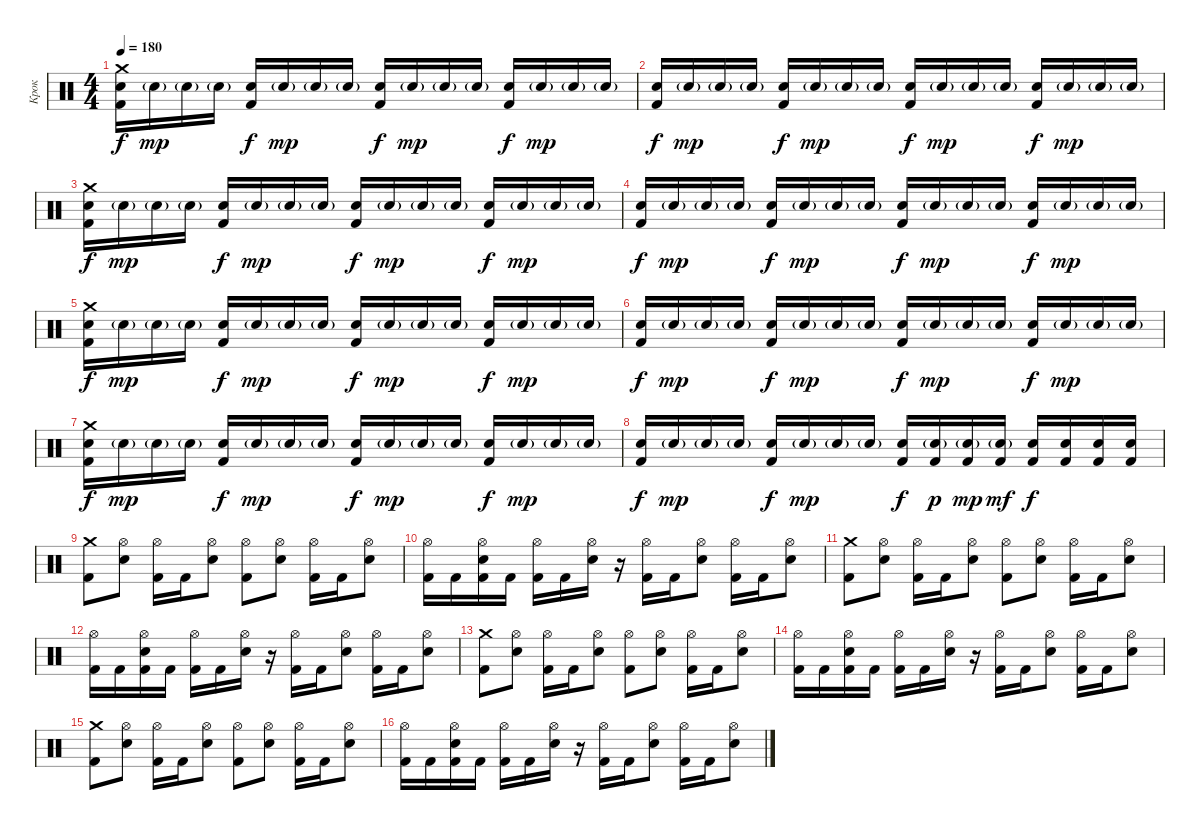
\track ("Крок" "Крок") {instrument percussion}
\staff {score}
\articulation defaults
\ts (4 4)
\tempo 180
\clef neutral
\ks c
("Crash medium (hit)" "Electric Snare (hit)" "Kick (hit) 2").16{dy f} "Electric Snare (hit)"{g}.16{dy mp} "Electric Snare (hit)"{g}.16 "Electric Snare (hit)"{g}.16 ("Electric Snare (hit)" "Kick (hit) 2").16{dy f} "Electric Snare (hit)"{g}.16{dy mp} "Electric Snare (hit)"{g}.16 "Electric Snare (hit)"{g}.16 ("Electric Snare (hit)" "Kick (hit) 2").16{dy f} "Electric Snare (hit)"{g}.16{dy mp} "Electric Snare (hit)"{g}.16 "Electric Snare (hit)"{g}.16 ("Electric Snare (hit)" "Kick (hit) 2").16{dy f} "Electric Snare (hit)"{g}.16{dy mp} "Electric Snare (hit)"{g}.16 "Electric Snare (hit)"{g}.16 |
("Electric Snare (hit)" "Kick (hit) 2").16{dy f} "Electric Snare (hit)"{g}.16{dy mp} "Electric Snare (hit)"{g}.16 "Electric Snare (hit)"{g}.16 ("Electric Snare (hit)" "Kick (hit) 2").16{dy f} "Electric Snare (hit)"{g}.16{dy mp} "Electric Snare (hit)"{g}.16 "Electric Snare (hit)"{g}.16 ("Electric Snare (hit)" "Kick (hit) 2").16{dy f} "Electric Snare (hit)"{g}.16{dy mp} "Electric Snare (hit)"{g}.16 "Electric Snare (hit)"{g}.16 ("Electric Snare (hit)" "Kick (hit) 2").16{dy f} "Electric Snare (hit)"{g}.16{dy mp} "Electric Snare (hit)"{g}.16 "Electric Snare (hit)"{g}.16 |
("Crash medium (hit)" "Electric Snare (hit)" "Kick (hit) 2").16{dy f} "Electric Snare (hit)"{g}.16{dy mp} "Electric Snare (hit)"{g}.16 "Electric Snare (hit)"{g}.16 ("Electric Snare (hit)" "Kick (hit) 2").16{dy f} "Electric Snare (hit)"{g}.16{dy mp} "Electric Snare (hit)"{g}.16 "Electric Snare (hit)"{g}.16 ("Electric Snare (hit)" "Kick (hit) 2").16{dy f} "Electric Snare (hit)"{g}.16{dy mp} "Electric Snare (hit)"{g}.16 "Electric Snare (hit)"{g}.16 ("Electric Snare (hit)" "Kick (hit) 2").16{dy f} "Electric Snare (hit)"{g}.16{dy mp} "Electric Snare (hit)"{g}.16 "Electric Snare (hit)"{g}.16 |
("Electric Snare (hit)" "Kick (hit) 2").16{dy f} "Electric Snare (hit)"{g}.16{dy mp} "Electric Snare (hit)"{g}.16 "Electric Snare (hit)"{g}.16 ("Electric Snare (hit)" "Kick (hit) 2").16{dy f} "Electric Snare (hit)"{g}.16{dy mp} "Electric Snare (hit)"{g}.16 "Electric Snare (hit)"{g}.16 ("Electric Snare (hit)" "Kick (hit) 2").16{dy f} "Electric Snare (hit)"{g}.16{dy mp} "Electric Snare (hit)"{g}.16 "Electric Snare (hit)"{g}.16 ("Electric Snare (hit)" "Kick (hit) 2").16{dy f} "Electric Snare (hit)"{g}.16{dy mp} "Electric Snare (hit)"{g}.16 "Electric Snare (hit)"{g}.16 |
("Crash medium (hit)" "Electric Snare (hit)" "Kick (hit) 2").16{dy f} "Electric Snare (hit)"{g}.16{dy mp} "Electric Snare (hit)"{g}.16 "Electric Snare (hit)"{g}.16 ("Electric Snare (hit)" "Kick (hit) 2").16{dy f} "Electric Snare (hit)"{g}.16{dy mp} "Electric Snare (hit)"{g}.16 "Electric Snare (hit)"{g}.16 ("Electric Snare (hit)" "Kick (hit) 2").16{dy f} "Electric Snare (hit)"{g}.16{dy mp} "Electric Snare (hit)"{g}.16 "Electric Snare (hit)"{g}.16 ("Electric Snare (hit)" "Kick (hit) 2").16{dy f} "Electric Snare (hit)"{g}.16{dy mp} "Electric Snare (hit)"{g}.16 "Electric Snare (hit)"{g}.16 |
("Electric Snare (hit)" "Kick (hit) 2").16{dy f} "Electric Snare (hit)"{g}.16{dy mp} "Electric Snare (hit)"{g}.16 "Electric Snare (hit)"{g}.16 ("Electric Snare (hit)" "Kick (hit) 2").16{dy f} "Electric Snare (hit)"{g}.16{dy mp} "Electric Snare (hit)"{g}.16 "Electric Snare (hit)"{g}.16 ("Electric Snare (hit)" "Kick (hit) 2").16{dy f} "Electric Snare (hit)"{g}.16{dy mp} "Electric Snare (hit)"{g}.16 "Electric Snare (hit)"{g}.16 ("Electric Snare (hit)" "Kick (hit) 2").16{dy f} "Electric Snare (hit)"{g}.16{dy mp} "Electric Snare (hit)"{g}.16 "Electric Snare (hit)"{g}.16 |
("Crash medium (hit)" "Electric Snare (hit)" "Kick (hit) 2").16{dy f} "Electric Snare (hit)"{g}.16{dy mp} "Electric Snare (hit)"{g}.16 "Electric Snare (hit)"{g}.16 ("Electric Snare (hit)" "Kick (hit) 2").16{dy f} "Electric Snare (hit)"{g}.16{dy mp} "Electric Snare (hit)"{g}.16 "Electric Snare (hit)"{g}.16 ("Electric Snare (hit)" "Kick (hit) 2").16{dy f} "Electric Snare (hit)"{g}.16{dy mp} "Electric Snare (hit)"{g}.16 "Electric Snare (hit)"{g}.16 ("Electric Snare (hit)" "Kick (hit) 2").16{dy f} "Electric Snare (hit)"{g}.16{dy mp} "Electric Snare (hit)"{g}.16 "Electric Snare (hit)"{g}.16 |
("Electric Snare (hit)" "Kick (hit) 2").16{dy f} "Electric Snare (hit)"{g}.16{dy mp} "Electric Snare (hit)"{g}.16 "Electric Snare (hit)"{g}.16 ("Electric Snare (hit)" "Kick (hit) 2").16{dy f} "Electric Snare (hit)"{g}.16{dy mp} "Electric Snare (hit)"{g}.16 "Electric Snare (hit)"{g}.16 ("Electric Snare (hit)" "Kick (hit) 2").16{dy f} ("Electric Snare (hit)"{g} "Kick (hit) 2").16{dy p} ("Electric Snare (hit)"{g} "Kick (hit) 2").16{dy mp} ("Electric Snare (hit)"{g} "Kick (hit) 2").16{dy mf} ("Electric Snare (hit)" "Kick (hit) 2").16{dy f} ("Electric Snare (hit)" "Kick (hit) 2").16 ("Electric Snare (hit)" "Kick (hit) 2").16 ("Electric Snare (hit)" "Kick (hit) 2").16 |
("Kick (hit) 2" "Crash medium (hit)").8 ("Electric Snare (hit)" "Hi-Hat (open)").8 ("Kick (hit) 2" "Hi-Hat (open)").16 "Kick (hit) 2".16 ("Electric Snare (hit)" "Hi-Hat (open)").8 ("Kick (hit) 2" "Hi-Hat (open)").8 ("Electric Snare (hit)" "Hi-Hat (open)").8 ("Kick (hit) 2" "Hi-Hat (open)").16 "Kick (hit) 2".16 ("Electric Snare (hit)" "Hi-Hat (open)").8 |
("Kick (hit) 2" "Hi-Hat (open)").16 "Kick (hit) 2".16 ("Kick (hit) 2" "Electric Snare (hit)" "Hi-Hat (open)").16 "Kick (hit) 2".16 ("Kick (hit) 2" "Hi-Hat (open)").16 "Kick (hit) 2".16 ("Electric Snare (hit)" "Hi-Hat (open)").16 r.16 ("Kick (hit) 2" "Hi-Hat (open)").16 "Kick (hit) 2".16 ("Electric Snare (hit)" "Hi-Hat (open)").8 ("Kick (hit) 2" "Hi-Hat (open)").16 "Kick (hit) 2".16 ("Electric Snare (hit)" "Hi-Hat (open)").8 |
("Kick (hit) 2" "Crash medium (hit)").8 ("Electric Snare (hit)" "Hi-Hat (open)").8 ("Kick (hit) 2" "Hi-Hat (open)").16 "Kick (hit) 2".16 ("Electric Snare (hit)" "Hi-Hat (open)").8 ("Kick (hit) 2" "Hi-Hat (open)").8 ("Electric Snare (hit)" "Hi-Hat (open)").8 ("Kick (hit) 2" "Hi-Hat (open)").16 "Kick (hit) 2".16 ("Electric Snare (hit)" "Hi-Hat (open)").8 |
("Kick (hit) 2" "Hi-Hat (open)").16 "Kick (hit) 2".16 ("Kick (hit) 2" "Electric Snare (hit)" "Hi-Hat (open)").16 "Kick (hit) 2".16 ("Kick (hit) 2" "Hi-Hat (open)").16 "Kick (hit) 2".16 ("Electric Snare (hit)" "Hi-Hat (open)").16 r.16 ("Kick (hit) 2" "Hi-Hat (open)").16 "Kick (hit) 2".16 ("Electric Snare (hit)" "Hi-Hat (open)").8 ("Kick (hit) 2" "Hi-Hat (open)").16 "Kick (hit) 2".16 ("Electric Snare (hit)" "Hi-Hat (open)").8 |
("Kick (hit) 2" "Crash medium (hit)").8 ("Electric Snare (hit)" "Hi-Hat (open)").8 ("Kick (hit) 2" "Hi-Hat (open)").16 "Kick (hit) 2".16 ("Electric Snare (hit)" "Hi-Hat (open)").8 ("Kick (hit) 2" "Hi-Hat (open)").8 ("Electric Snare (hit)" "Hi-Hat (open)").8 ("Kick (hit) 2" "Hi-Hat (open)").16 "Kick (hit) 2".16 ("Electric Snare (hit)" "Hi-Hat (open)").8 |
("Kick (hit) 2" "Hi-Hat (open)").16 "Kick (hit) 2".16 ("Kick (hit) 2" "Electric Snare (hit)" "Hi-Hat (open)").16 "Kick (hit) 2".16 ("Kick (hit) 2" "Hi-Hat (open)").16 "Kick (hit) 2".16 ("Electric Snare (hit)" "Hi-Hat (open)").16 r.16 ("Kick (hit) 2" "Hi-Hat (open)").16 "Kick (hit) 2".16 ("Electric Snare (hit)" "Hi-Hat (open)").8 ("Kick (hit) 2" "Hi-Hat (open)").16 "Kick (hit) 2".16 ("Electric Snare (hit)" "Hi-Hat (open)").8 |
("Kick (hit) 2" "Crash medium (hit)").8 ("Electric Snare (hit)" "Hi-Hat (open)").8 ("Kick (hit) 2" "Hi-Hat (open)").16 "Kick (hit) 2".16 ("Electric Snare (hit)" "Hi-Hat (open)").8 ("Kick (hit) 2" "Hi-Hat (open)").8 ("Electric Snare (hit)" "Hi-Hat (open)").8 ("Kick (hit) 2" "Hi-Hat (open)").16 "Kick (hit) 2".16 ("Electric Snare (hit)" "Hi-Hat (open)").8 |
("Kick (hit) 2" "Hi-Hat (open)").16 "Kick (hit) 2".16 ("Kick (hit) 2" "Electric Snare (hit)" "Hi-Hat (open)").16 "Kick (hit) 2".16 ("Kick (hit) 2" "Hi-Hat (open)").16 "Kick (hit) 2".16 ("Electric Snare (hit)" "Hi-Hat (open)").16 r.16 ("Kick (hit) 2" "Hi-Hat (open)").16 "Kick (hit) 2".16 ("Electric Snare (hit)" "Hi-Hat (open)").8 ("Kick (hit) 2" "Hi-Hat (open)").16 "Kick (hit) 2".16 ("Electric Snare (hit)" "Hi-Hat (open)").8
